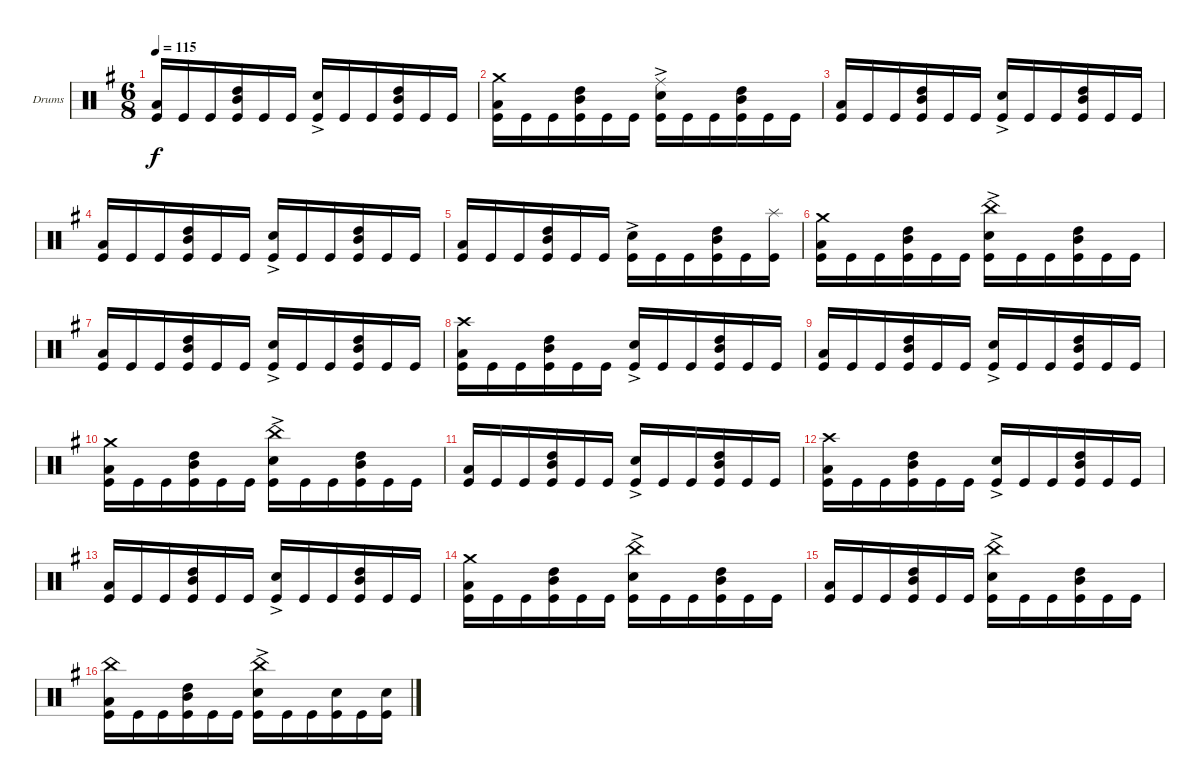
\bracketExtendMode groupsimilarinstruments
\firstSystemTrackNameOrientation horizontal
\otherSystemsTrackNameOrientation horizontal
\track ("Drumkit" "Drums") {instrument percussion}
\staff {score}
\articulation defaults
\ts (6 8)
\tempo 115
\clef neutral
\ks eminor
("Kick (hit)" "Low Tom (hit)").16{dy f} "Kick (hit)".16 "Kick (hit)".16 ("Kick (hit)" "Mid Tom (hit)" "High Tom (hit)").16 "Kick (hit)".16 "Kick (hit)".16 ("Kick (hit)" "Snare (hit) 2"{ac}).16 "Kick (hit)".16 "Kick (hit)".16 ("Kick (hit)" "Mid Tom (hit)" "High Tom (hit)").16 "Kick (hit)".16 "Kick (hit)".16 |
("Kick (hit)" "Low Tom (hit)" "Crash medium (hit)").16 "Kick (hit)".16 "Kick (hit)".16 ("Kick (hit)" "Mid Tom (hit)" "High Tom (hit)").16 "Kick (hit)".16 "Kick (hit)".16 ("Kick (hit)" "Snare (hit) 2"{ac} "Ride (middle)").16 "Kick (hit)".16 "Kick (hit)".16 ("Kick (hit)" "Mid Tom (hit)" "High Tom (hit)").16 "Kick (hit)".16 "Kick (hit)".16 |
("Kick (hit)" "Low Tom (hit)").16 "Kick (hit)".16 "Kick (hit)".16 ("Kick (hit)" "Mid Tom (hit)" "High Tom (hit)").16 "Kick (hit)".16 "Kick (hit)".16 ("Kick (hit)" "Snare (hit) 2"{ac}).16 "Kick (hit)".16 "Kick (hit)".16 ("Kick (hit)" "Mid Tom (hit)" "High Tom (hit)").16 "Kick (hit)".16 "Kick (hit)".16 |
("Kick (hit)" "Low Tom (hit)").16 "Kick (hit)".16 "Kick (hit)".16 ("Kick (hit)" "Mid Tom (hit)" "High Tom (hit)").16 "Kick (hit)".16 "Kick (hit)".16 ("Kick (hit)" "Snare (hit) 2"{ac}).16 "Kick (hit)".16 "Kick (hit)".16 ("Kick (hit)" "Mid Tom (hit)" "High Tom (hit)").16 "Kick (hit)".16 "Kick (hit)".16 |
("Kick (hit)" "Low Tom (hit)").16 "Kick (hit)".16 "Kick (hit)".16 ("Kick (hit)" "Mid Tom (hit)" "High Tom (hit)").16 "Kick (hit)".16 "Kick (hit)".16 ("Kick (hit)" "Snare (hit) 2"{ac}).16 "Kick (hit)".16 "Kick (hit)".16 ("Kick (hit)" "Mid Tom (hit)" "High Tom (hit)").16 "Kick (hit)".16 ("Kick (hit)" "Splash (hit)").16 |
("Kick (hit)" "Low Tom (hit)" "Crash medium (hit)").16 "Kick (hit)".16 "Kick (hit)".16 ("Kick (hit)" "Mid Tom (hit)" "High Tom (hit)").16 "Kick (hit)".16 "Kick (hit)".16 ("Kick (hit)" "Snare (hit) 2"{ac} "China (hit)").16 "Kick (hit)".16 "Kick (hit)".16 ("Kick (hit)" "Mid Tom (hit)" "High Tom (hit)").16 "Kick (hit)".16 "Kick (hit)".16 |
("Kick (hit)" "Low Tom (hit)").16 "Kick (hit)".16 "Kick (hit)".16 ("Kick (hit)" "Mid Tom (hit)" "High Tom (hit)").16 "Kick (hit)".16 "Kick (hit)".16 ("Kick (hit)" "Snare (hit) 2"{ac}).16 "Kick (hit)".16 "Kick (hit)".16 ("Kick (hit)" "Mid Tom (hit)" "High Tom (hit)").16 "Kick (hit)".16 "Kick (hit)".16 |
("Kick (hit)" "Low Tom (hit)" "Crash high (hit)").16 "Kick (hit)".16 "Kick (hit)".16 ("Kick (hit)" "Mid Tom (hit)" "High Tom (hit)").16 "Kick (hit)".16 "Kick (hit)".16 ("Kick (hit)" "Snare (hit) 2"{ac}).16 "Kick (hit)".16 "Kick (hit)".16 ("Kick (hit)" "Mid Tom (hit)" "High Tom (hit)").16 "Kick (hit)".16 "Kick (hit)".16 |
("Kick (hit)" "Low Tom (hit)").16 "Kick (hit)".16 "Kick (hit)".16 ("Kick (hit)" "Mid Tom (hit)" "High Tom (hit)").16 "Kick (hit)".16 "Kick (hit)".16 ("Kick (hit)" "Snare (hit) 2"{ac}).16 "Kick (hit)".16 "Kick (hit)".16 ("Kick (hit)" "Mid Tom (hit)" "High Tom (hit)").16 "Kick (hit)".16 "Kick (hit)".16 |
("Kick (hit)" "Low Tom (hit)" "Crash medium (hit)").16 "Kick (hit)".16 "Kick (hit)".16 ("Kick (hit)" "Mid Tom (hit)" "High Tom (hit)").16 "Kick (hit)".16 "Kick (hit)".16 ("Kick (hit)" "Snare (hit) 2"{ac} "China (hit)").16 "Kick (hit)".16 "Kick (hit)".16 ("Kick (hit)" "Mid Tom (hit)" "High Tom (hit)").16 "Kick (hit)".16 "Kick (hit)".16 |
("Kick (hit)" "Low Tom (hit)").16 "Kick (hit)".16 "Kick (hit)".16 ("Kick (hit)" "Mid Tom (hit)" "High Tom (hit)").16 "Kick (hit)".16 "Kick (hit)".16 ("Kick (hit)" "Snare (hit) 2"{ac}).16 "Kick (hit)".16 "Kick (hit)".16 ("Kick (hit)" "Mid Tom (hit)" "High Tom (hit)").16 "Kick (hit)".16 "Kick (hit)".16 |
("Kick (hit)" "Low Tom (hit)" "Crash high (hit)").16 "Kick (hit)".16 "Kick (hit)".16 ("Kick (hit)" "Mid Tom (hit)" "High Tom (hit)").16 "Kick (hit)".16 "Kick (hit)".16 ("Kick (hit)" "Snare (hit) 2"{ac}).16 "Kick (hit)".16 "Kick (hit)".16 ("Kick (hit)" "Mid Tom (hit)" "High Tom (hit)").16 "Kick (hit)".16 "Kick (hit)".16 |
("Kick (hit)" "Low Tom (hit)").16 "Kick (hit)".16 "Kick (hit)".16 ("Kick (hit)" "Mid Tom (hit)" "High Tom (hit)").16 "Kick (hit)".16 "Kick (hit)".16 ("Kick (hit)" "Snare (hit) 2"{ac}).16 "Kick (hit)".16 "Kick (hit)".16 ("Kick (hit)" "Mid Tom (hit)" "High Tom (hit)").16 "Kick (hit)".16 "Kick (hit)".16 |
("Kick (hit)" "Low Tom (hit)" "Crash medium (hit)").16 "Kick (hit)".16 "Kick (hit)".16 ("Kick (hit)" "Mid Tom (hit)" "High Tom (hit)").16 "Kick (hit)".16 "Kick (hit)".16 ("Kick (hit)" "Snare (hit) 2"{ac} "China (hit)").16 "Kick (hit)".16 "Kick (hit)".16 ("Kick (hit)" "Mid Tom (hit)" "High Tom (hit)").16 "Kick (hit)".16 "Kick (hit)".16 |
("Kick (hit)" "Low Tom (hit)").16 "Kick (hit)".16 "Kick (hit)".16 ("Kick (hit)" "Mid Tom (hit)" "High Tom (hit)").16 "Kick (hit)".16 "Kick (hit)".16 ("Kick (hit)" "Snare (hit) 2"{ac} "China (hit)").16 "Kick (hit)".16 "Kick (hit)".16 ("Kick (hit)" "Mid Tom (hit)" "High Tom (hit)").16 "Kick (hit)".16 "Kick (hit)".16 |
("Kick (hit)" "Low Tom (hit)" "China (hit)").16 "Kick (hit)".16 "Kick (hit)".16 ("Kick (hit)" "Mid Tom (hit)" "High Tom (hit)").16 "Kick (hit)".16 "Kick (hit)".16 ("Kick (hit)" "Snare (hit) 2"{ac} "China (hit)").16 "Kick (hit)".16 "Kick (hit)".16 ("Kick (hit)" "Snare (hit) 2").16 "Kick (hit)".16 ("Kick (hit)" "Snare (hit) 2").16
